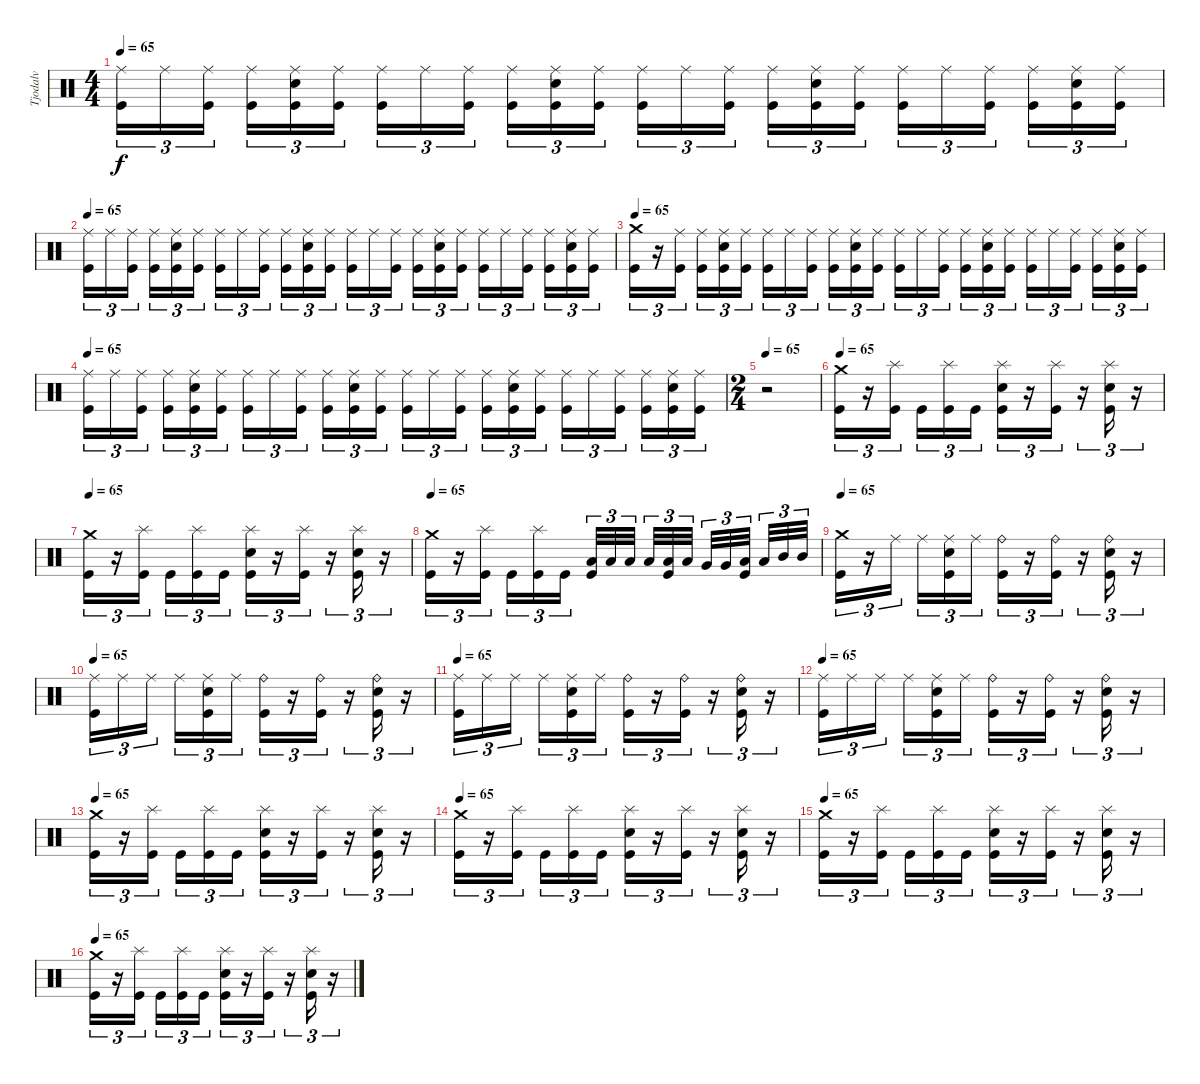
\track ("Tjodalv" "Tjodalv") {instrument percussion}
\staff {score}
\articulation defaults
\ts (4 4)
\tempo 65
\clef neutral
\ks c
("Ride (middle)" "Kick (hit)").16{tu (3 2) dy f} "Ride (middle)".16{tu (3 2)} ("Ride (middle)" "Kick (hit)").16{tu (3 2)} ("Ride (middle)" "Kick (hit)").16{tu (3 2)} ("Ride (middle)" "Snare (hit) 2" "Kick (hit)").16{tu (3 2)} ("Ride (middle)" "Kick (hit)").16{tu (3 2)} ("Ride (middle)" "Kick (hit)").16{tu (3 2)} "Ride (middle)".16{tu (3 2)} ("Ride (middle)" "Kick (hit)").16{tu (3 2)} ("Ride (middle)" "Kick (hit)").16{tu (3 2)} ("Ride (middle)" "Snare (hit) 2" "Kick (hit)").16{tu (3 2)} ("Ride (middle)" "Kick (hit)").16{tu (3 2)} ("Ride (middle)" "Kick (hit)").16{tu (3 2)} "Ride (middle)".16{tu (3 2)} ("Ride (middle)" "Kick (hit)").16{tu (3 2)} ("Ride (middle)" "Kick (hit)").16{tu (3 2)} ("Ride (middle)" "Snare (hit) 2" "Kick (hit)").16{tu (3 2)} ("Ride (middle)" "Kick (hit)").16{tu (3 2)} ("Ride (middle)" "Kick (hit)").16{tu (3 2)} "Ride (middle)".16{tu (3 2)} ("Ride (middle)" "Kick (hit)").16{tu (3 2)} ("Ride (middle)" "Kick (hit)").16{tu (3 2)} ("Ride (middle)" "Snare (hit) 2" "Kick (hit)").16{tu (3 2)} ("Ride (middle)" "Kick (hit)").16{tu (3 2)} |
\tempo 65
("Ride (middle)" "Kick (hit)").16{tu (3 2)} "Ride (middle)".16{tu (3 2)} ("Ride (middle)" "Kick (hit)").16{tu (3 2)} ("Ride (middle)" "Kick (hit)").16{tu (3 2)} ("Ride (middle)" "Snare (hit) 2" "Kick (hit)").16{tu (3 2)} ("Ride (middle)" "Kick (hit)").16{tu (3 2)} ("Ride (middle)" "Kick (hit)").16{tu (3 2)} "Ride (middle)".16{tu (3 2)} ("Ride (middle)" "Kick (hit)").16{tu (3 2)} ("Ride (middle)" "Kick (hit)").16{tu (3 2)} ("Ride (middle)" "Snare (hit) 2" "Kick (hit)").16{tu (3 2)} ("Ride (middle)" "Kick (hit)").16{tu (3 2)} ("Ride (middle)" "Kick (hit)").16{tu (3 2)} "Ride (middle)".16{tu (3 2)} ("Ride (middle)" "Kick (hit)").16{tu (3 2)} ("Ride (middle)" "Kick (hit)").16{tu (3 2)} ("Ride (middle)" "Snare (hit) 2" "Kick (hit)").16{tu (3 2)} ("Ride (middle)" "Kick (hit)").16{tu (3 2)} ("Ride (middle)" "Kick (hit)").16{tu (3 2)} "Ride (middle)".16{tu (3 2)} ("Ride (middle)" "Kick (hit)").16{tu (3 2)} ("Ride (middle)" "Kick (hit)").16{tu (3 2)} ("Ride (middle)" "Snare (hit) 2" "Kick (hit)").16{tu (3 2)} ("Ride (middle)" "Kick (hit)").16{tu (3 2)} |
\tempo 65
("Crash medium (hit)" "Kick (hit)").16{tu (3 2)} r.16{tu (3 2)} ("Ride (middle)" "Kick (hit)").16{tu (3 2)} ("Ride (middle)" "Kick (hit)").16{tu (3 2)} ("Ride (middle)" "Snare (hit) 2" "Kick (hit)").16{tu (3 2)} ("Ride (middle)" "Kick (hit)").16{tu (3 2)} ("Ride (middle)" "Kick (hit)").16{tu (3 2)} "Ride (middle)".16{tu (3 2)} ("Ride (middle)" "Kick (hit)").16{tu (3 2)} ("Ride (middle)" "Kick (hit)").16{tu (3 2)} ("Ride (middle)" "Snare (hit) 2" "Kick (hit)").16{tu (3 2)} ("Ride (middle)" "Kick (hit)").16{tu (3 2)} ("Ride (middle)" "Kick (hit)").16{tu (3 2)} "Ride (middle)".16{tu (3 2)} ("Ride (middle)" "Kick (hit)").16{tu (3 2)} ("Ride (middle)" "Kick (hit)").16{tu (3 2)} ("Ride (middle)" "Snare (hit) 2" "Kick (hit)").16{tu (3 2)} ("Ride (middle)" "Kick (hit)").16{tu (3 2)} ("Ride (middle)" "Kick (hit)").16{tu (3 2)} "Ride (middle)".16{tu (3 2)} ("Ride (middle)" "Kick (hit)").16{tu (3 2)} ("Ride (middle)" "Kick (hit)").16{tu (3 2)} ("Ride (middle)" "Snare (hit) 2" "Kick (hit)").16{tu (3 2)} ("Ride (middle)" "Kick (hit)").16{tu (3 2)} |
\tempo 65
("Ride (middle)" "Kick (hit)").16{tu (3 2)} "Ride (middle)".16{tu (3 2)} ("Ride (middle)" "Kick (hit)").16{tu (3 2)} ("Ride (middle)" "Kick (hit)").16{tu (3 2)} ("Ride (middle)" "Snare (hit) 2" "Kick (hit)").16{tu (3 2)} ("Ride (middle)" "Kick (hit)").16{tu (3 2)} ("Ride (middle)" "Kick (hit)").16{tu (3 2)} "Ride (middle)".16{tu (3 2)} ("Ride (middle)" "Kick (hit)").16{tu (3 2)} ("Ride (middle)" "Kick (hit)").16{tu (3 2)} ("Ride (middle)" "Snare (hit) 2" "Kick (hit)").16{tu (3 2)} ("Ride (middle)" "Kick (hit)").16{tu (3 2)} ("Ride (middle)" "Kick (hit)").16{tu (3 2)} "Ride (middle)".16{tu (3 2)} ("Ride (middle)" "Kick (hit)").16{tu (3 2)} ("Ride (middle)" "Kick (hit)").16{tu (3 2)} ("Ride (middle)" "Snare (hit) 2" "Kick (hit)").16{tu (3 2)} ("Ride (middle)" "Kick (hit)").16{tu (3 2)} ("Ride (middle)" "Kick (hit)").16{tu (3 2)} "Ride (middle)".16{tu (3 2)} ("Ride (middle)" "Kick (hit)").16{tu (3 2)} ("Ride (middle)" "Kick (hit)").16{tu (3 2)} ("Ride (middle)" "Snare (hit) 2" "Kick (hit)").16{tu (3 2)} ("Ride (middle)" "Kick (hit)").16{tu (3 2)} |
\ts (2 4)
\tempo 65
r.2 |
\tempo 65
("Crash medium (hit)" "Kick (hit)").16{tu (3 2)} r.16{tu (3 2)} ("Splash (hit)" "Kick (hit)").16{tu (3 2)} "Kick (hit)".16{tu (3 2)} ("Splash (hit)" "Kick (hit)").16{tu (3 2)} "Kick (hit)".16{tu (3 2)} ("Splash (hit)" "Snare (hit) 2" "Kick (hit)").16{tu (3 2)} r.16{tu (3 2)} ("Splash (hit)" "Kick (hit)").16{tu (3 2)} r.16{tu (3 2)} ("Splash (hit)" "Snare (hit) 2" "Kick (hit)").16{tu (3 2)} r.16{tu (3 2)} |
\tempo 65
("Crash medium (hit)" "Kick (hit)").16{tu (3 2)} r.16{tu (3 2)} ("Splash (hit)" "Kick (hit)").16{tu (3 2)} "Kick (hit)".16{tu (3 2)} ("Splash (hit)" "Kick (hit)").16{tu (3 2)} "Kick (hit)".16{tu (3 2)} ("Splash (hit)" "Snare (hit) 2" "Kick (hit)").16{tu (3 2)} r.16{tu (3 2)} ("Splash (hit)" "Kick (hit)").16{tu (3 2)} r.16{tu (3 2)} ("Splash (hit)" "Snare (hit) 2" "Kick (hit)").16{tu (3 2)} r.16{tu (3 2)} |
\tempo 65
("Crash medium (hit)" "Kick (hit)").16{tu (3 2)} r.16{tu (3 2)} ("Splash (hit)" "Kick (hit)").16{tu (3 2)} "Kick (hit)".16{tu (3 2)} ("Splash (hit)" "Kick (hit)").16{tu (3 2)} "Kick (hit)".16{tu (3 2)} ("Low Floor Tom (hit)" "Kick (hit)").32{tu (3 2)} "Low Floor Tom (hit)".32{tu (3 2)} "Low Floor Tom (hit)".32{tu (3 2)} "Low Floor Tom (hit)".32{tu (3 2)} ("Low Floor Tom (hit)" "Kick (hit)").32{tu (3 2)} "Low Floor Tom (hit)".32{tu (3 2)} "Very Low Tom (hit)".32{tu (3 2)} "Very Low Tom (hit)".32{tu (3 2)} ("Low Tom (hit)" "Kick (hit)").32{tu (3 2)} "Low Tom (hit)".32{tu (3 2)} "Mid Tom (hit)".32{tu (3 2)} "Mid Tom (hit)".32{tu (3 2)} |
\tempo 65
("Crash medium (hit)" "Kick (hit)").16{tu (3 2)} r.16{tu (3 2)} "Ride (middle)".16{tu (3 2)} "Ride (middle)".16{tu (3 2)} ("Ride (middle)" "Snare (hit) 2" "Kick (hit)").16{tu (3 2)} "Ride (middle)".16{tu (3 2)} ("Ride (bell)" "Kick (hit)").16{tu (3 2)} r.16{tu (3 2)} ("Ride (bell)" "Kick (hit)").16{tu (3 2)} r.16{tu (3 2)} ("Ride (bell)" "Snare (hit) 2" "Kick (hit)").16{tu (3 2)} r.16{tu (3 2)} |
\tempo 65
("Ride (middle)" "Kick (hit)").16{tu (3 2)} "Ride (middle)".16{tu (3 2)} "Ride (middle)".16{tu (3 2)} "Ride (middle)".16{tu (3 2)} ("Ride (middle)" "Snare (hit) 2" "Kick (hit)").16{tu (3 2)} "Ride (middle)".16{tu (3 2)} ("Ride (bell)" "Kick (hit)").16{tu (3 2)} r.16{tu (3 2)} ("Ride (bell)" "Kick (hit)").16{tu (3 2)} r.16{tu (3 2)} ("Ride (bell)" "Snare (hit) 2" "Kick (hit)").16{tu (3 2)} r.16{tu (3 2)} |
\tempo 65
("Ride (middle)" "Kick (hit)").16{tu (3 2)} "Ride (middle)".16{tu (3 2)} "Ride (middle)".16{tu (3 2)} "Ride (middle)".16{tu (3 2)} ("Ride (middle)" "Snare (hit) 2" "Kick (hit)").16{tu (3 2)} "Ride (middle)".16{tu (3 2)} ("Ride (bell)" "Kick (hit)").16{tu (3 2)} r.16{tu (3 2)} ("Ride (bell)" "Kick (hit)").16{tu (3 2)} r.16{tu (3 2)} ("Ride (bell)" "Snare (hit) 2" "Kick (hit)").16{tu (3 2)} r.16{tu (3 2)} |
\tempo 65
("Ride (middle)" "Kick (hit)").16{tu (3 2)} "Ride (middle)".16{tu (3 2)} "Ride (middle)".16{tu (3 2)} "Ride (middle)".16{tu (3 2)} ("Ride (middle)" "Snare (hit) 2" "Kick (hit)").16{tu (3 2)} "Ride (middle)".16{tu (3 2)} ("Ride (bell)" "Kick (hit)").16{tu (3 2)} r.16{tu (3 2)} ("Ride (bell)" "Kick (hit)").16{tu (3 2)} r.16{tu (3 2)} ("Ride (bell)" "Snare (hit) 2" "Kick (hit)").16{tu (3 2)} r.16{tu (3 2)} |
\tempo 65
("Crash medium (hit)" "Kick (hit)").16{tu (3 2)} r.16{tu (3 2)} ("Splash (hit)" "Kick (hit)").16{tu (3 2)} "Kick (hit)".16{tu (3 2)} ("Splash (hit)" "Kick (hit)").16{tu (3 2)} "Kick (hit)".16{tu (3 2)} ("Splash (hit)" "Snare (hit) 2" "Kick (hit)").16{tu (3 2)} r.16{tu (3 2)} ("Splash (hit)" "Kick (hit)").16{tu (3 2)} r.16{tu (3 2)} ("Splash (hit)" "Snare (hit) 2" "Kick (hit)").16{tu (3 2)} r.16{tu (3 2)} |
\tempo 65
("Crash medium (hit)" "Kick (hit)").16{tu (3 2)} r.16{tu (3 2)} ("Splash (hit)" "Kick (hit)").16{tu (3 2)} "Kick (hit)".16{tu (3 2)} ("Splash (hit)" "Kick (hit)").16{tu (3 2)} "Kick (hit)".16{tu (3 2)} ("Splash (hit)" "Snare (hit) 2" "Kick (hit)").16{tu (3 2)} r.16{tu (3 2)} ("Splash (hit)" "Kick (hit)").16{tu (3 2)} r.16{tu (3 2)} ("Splash (hit)" "Snare (hit) 2" "Kick (hit)").16{tu (3 2)} r.16{tu (3 2)} |
\tempo 65
("Crash medium (hit)" "Kick (hit)").16{tu (3 2)} r.16{tu (3 2)} ("Splash (hit)" "Kick (hit)").16{tu (3 2)} "Kick (hit)".16{tu (3 2)} ("Splash (hit)" "Kick (hit)").16{tu (3 2)} "Kick (hit)".16{tu (3 2)} ("Splash (hit)" "Snare (hit) 2" "Kick (hit)").16{tu (3 2)} r.16{tu (3 2)} ("Splash (hit)" "Kick (hit)").16{tu (3 2)} r.16{tu (3 2)} ("Splash (hit)" "Snare (hit) 2" "Kick (hit)").16{tu (3 2)} r.16{tu (3 2)} |
\tempo 65
("Crash medium (hit)" "Kick (hit)").16{tu (3 2)} r.16{tu (3 2)} ("Splash (hit)" "Kick (hit)").16{tu (3 2)} "Kick (hit)".16{tu (3 2)} ("Splash (hit)" "Kick (hit)").16{tu (3 2)} "Kick (hit)".16{tu (3 2)} ("Splash (hit)" "Snare (hit) 2" "Kick (hit)").16{tu (3 2)} r.16{tu (3 2)} ("Splash (hit)" "Kick (hit)").16{tu (3 2)} r.16{tu (3 2)} ("Splash (hit)" "Snare (hit) 2" "Kick (hit)").16{tu (3 2)} r.16{tu (3 2)}
